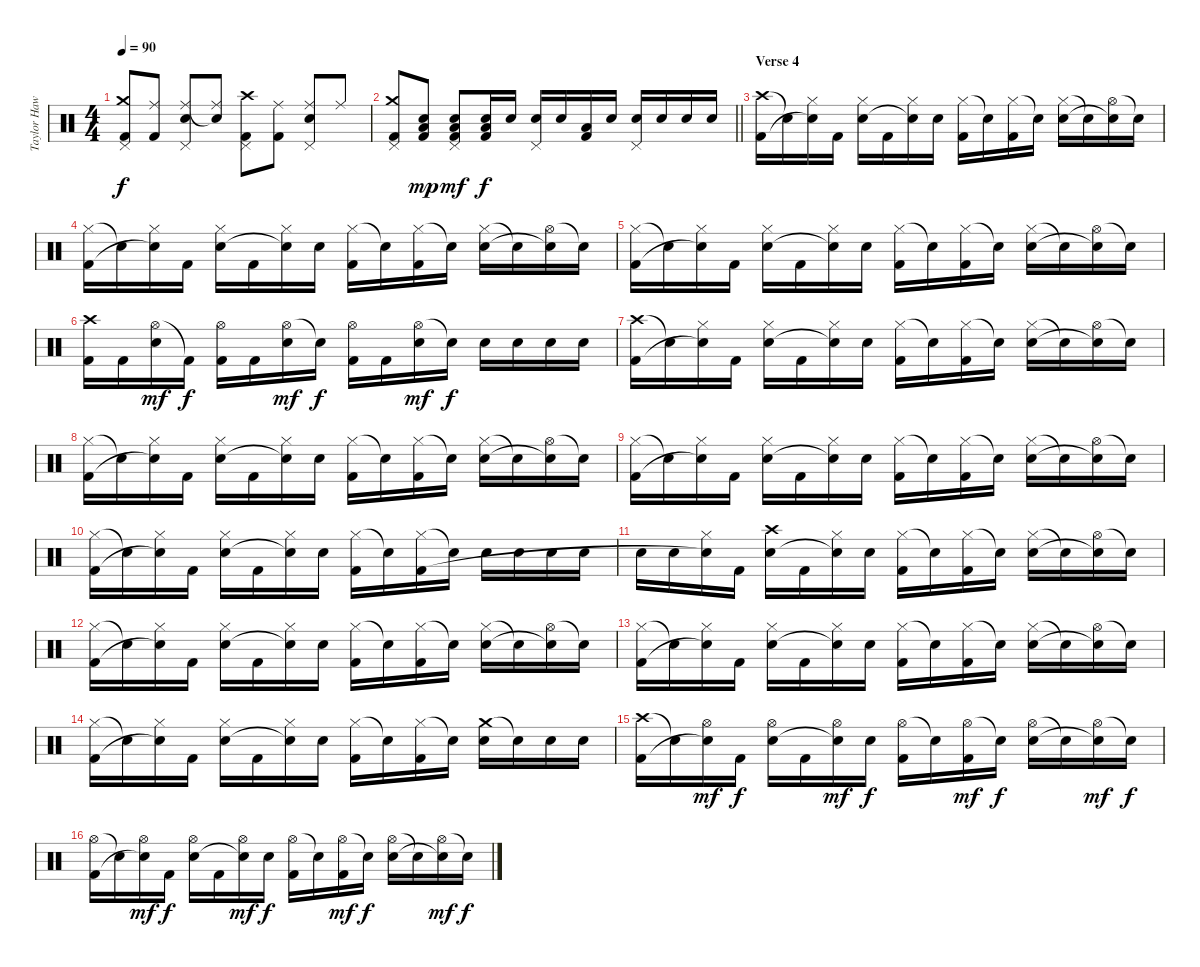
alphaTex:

\track ("Taylor Hawkins " "Taylor Haw") {instrument percussion}
\staff {score}
\articulation defaults
\ts (4 4)
\tempo 90
\clef neutral
\ks c
("Pedal Hi-Hat (hit)" "Crash medium (hit)" "Kick (hit) 2").8{dy f} ("Ride (middle)" "Kick (hit) 2").8 ("Pedal Hi-Hat (hit)" "Ride (middle)" "Snare (hit) 2").8 ("Ride (middle)" "Snare (hit) 2"{t}).8 ("Pedal Hi-Hat (hit)" "Crash high (hit)" "Kick (hit) 2").8 ("Ride (middle)" "Kick (hit) 2").8 ("Pedal Hi-Hat (hit)" "Ride (middle)" "Snare (hit) 2").8 "Ride (middle)".8 |
\barLineRight lightlight
("Pedal Hi-Hat (hit)" "Crash medium (hit)" "Kick (hit) 2").8 ("Snare (hit) 2" "Low Floor Tom (hit)" "Kick (hit) 2").8{dy mp} ("Pedal Hi-Hat (hit)" "Snare (hit) 2" "Low Floor Tom (hit)" "Kick (hit) 2").8{dy mf} ("Snare (hit) 2" "Low Floor Tom (hit)" "Kick (hit) 2").16{dy f} "Snare (hit) 2".16 ("Pedal Hi-Hat (hit)" "Snare (hit) 2").16 "Snare (hit) 2".16 ("Low Tom (hit)" "Kick (hit) 2").16 "Snare (hit) 2".16 ("Pedal Hi-Hat (hit)" "Snare (hit) 2").16 "Snare (hit) 2".16 "Snare (hit) 2".16 "Snare (hit) 2".16 |
\section ("" "Verse 4")
("Crash high (hit)" "Kick (hit) 2").16 "Snare (hit)"{t}.16 ("Hi-Hat (closed)" "Snare (hit)"{t}).16 "Kick (hit) 2".16 ("Hi-Hat (closed)" "Snare (hit) 2").16 "Kick (hit) 2".16 ("Hi-Hat (closed)" "Snare (hit)"{t}).16 "Snare (hit) 2".16 ("Hi-Hat (closed)" "Kick (hit) 2").16 "Snare (hit)"{t}.16 ("Hi-Hat (closed)" "Kick (hit) 2").16 "Snare (hit)"{t}.16 ("Hi-Hat (closed)" "Snare (hit) 2").16 "Snare (hit)"{t}.16 ("Hi-Hat (open)" "Snare (hit)"{t}).16 "Snare (hit)"{t}.16 |
("Hi-Hat (closed)" "Kick (hit) 2").16 "Snare (hit)"{t}.16 ("Hi-Hat (closed)" "Snare (hit)"{t}).16 "Kick (hit) 2".16 ("Hi-Hat (closed)" "Snare (hit) 2").16 "Kick (hit) 2".16 ("Hi-Hat (closed)" "Snare (hit)"{t}).16 "Snare (hit) 2".16 ("Hi-Hat (closed)" "Kick (hit) 2").16 "Snare (hit)"{t}.16 ("Hi-Hat (closed)" "Kick (hit) 2").16 "Snare (hit)"{t}.16 ("Hi-Hat (closed)" "Snare (hit) 2").16 "Snare (hit)"{t}.16 ("Hi-Hat (open)" "Snare (hit)"{t}).16 "Snare (hit)"{t}.16 |
("Hi-Hat (closed)" "Kick (hit) 2").16 "Snare (hit)"{t}.16 ("Hi-Hat (closed)" "Snare (hit)"{t}).16 "Kick (hit) 2".16 ("Hi-Hat (closed)" "Snare (hit) 2").16 "Kick (hit) 2".16 ("Hi-Hat (closed)" "Snare (hit)"{t}).16 "Snare (hit) 2".16 ("Hi-Hat (closed)" "Kick (hit) 2").16 "Snare (hit)"{t}.16 ("Hi-Hat (closed)" "Kick (hit) 2").16 "Snare (hit)"{t}.16 ("Hi-Hat (closed)" "Snare (hit) 2").16 "Snare (hit)"{t}.16 ("Hi-Hat (open)" "Snare (hit)"{t}).16 "Snare (hit)"{t}.16 |
("Crash high (hit)" "Kick (hit) 2").16 "Kick (hit) 2".16 ("Hi-Hat (open)" "Snare (hit) 2").16{dy mf} "Kick (hit) 2"{t}.16{dy f} ("Hi-Hat (open)" "Kick (hit) 2").16 "Kick (hit) 2".16 ("Hi-Hat (open)" "Snare (hit) 2").16{dy mf} "Snare (hit) 2"{t}.16{dy f} ("Hi-Hat (open)" "Kick (hit) 2").16 "Kick (hit) 2".16 ("Hi-Hat (open)" "Snare (hit) 2").16{dy mf} "Snare (hit)"{t}.16{dy f} "Snare (hit) 2".16 "Snare (hit) 2".16 "Snare (hit) 2".16 "Snare (hit) 2".16 |
("Crash high (hit)" "Kick (hit) 2").16 "Snare (hit)"{t}.16 ("Hi-Hat (closed)" "Snare (hit)"{t}).16 "Kick (hit) 2".16 ("Hi-Hat (closed)" "Snare (hit) 2").16 "Kick (hit) 2".16 ("Hi-Hat (closed)" "Snare (hit)"{t}).16 "Snare (hit) 2".16 ("Hi-Hat (closed)" "Kick (hit) 2").16 "Snare (hit)"{t}.16 ("Hi-Hat (closed)" "Kick (hit) 2").16 "Snare (hit)"{t}.16 ("Hi-Hat (closed)" "Snare (hit) 2").16 "Snare (hit)"{t}.16 ("Hi-Hat (open)" "Snare (hit)"{t}).16 "Snare (hit)"{t}.16 |
("Hi-Hat (closed)" "Kick (hit) 2").16 "Snare (hit)"{t}.16 ("Hi-Hat (closed)" "Snare (hit)"{t}).16 "Kick (hit) 2".16 ("Hi-Hat (closed)" "Snare (hit) 2").16 "Kick (hit) 2".16 ("Hi-Hat (closed)" "Snare (hit)"{t}).16 "Snare (hit) 2".16 ("Hi-Hat (closed)" "Kick (hit) 2").16 "Snare (hit)"{t}.16 ("Hi-Hat (closed)" "Kick (hit) 2").16 "Snare (hit)"{t}.16 ("Hi-Hat (closed)" "Snare (hit) 2").16 "Snare (hit)"{t}.16 ("Hi-Hat (open)" "Snare (hit)"{t}).16 "Snare (hit)"{t}.16 |
("Hi-Hat (closed)" "Kick (hit) 2").16 "Snare (hit)"{t}.16 ("Hi-Hat (closed)" "Snare (hit)"{t}).16 "Kick (hit) 2".16 ("Hi-Hat (closed)" "Snare (hit) 2").16 "Kick (hit) 2".16 ("Hi-Hat (closed)" "Snare (hit)"{t}).16 "Snare (hit) 2".16 ("Hi-Hat (closed)" "Kick (hit) 2").16 "Snare (hit)"{t}.16 ("Hi-Hat (closed)" "Kick (hit) 2").16 "Snare (hit)"{t}.16 ("Hi-Hat (closed)" "Snare (hit) 2").16 "Snare (hit)"{t}.16 ("Hi-Hat (open)" "Snare (hit)"{t}).16 "Snare (hit)"{t}.16 |
("Hi-Hat (closed)" "Kick (hit) 2").16 "Snare (hit)"{t}.16 ("Hi-Hat (closed)" "Snare (hit)"{t}).16 "Kick (hit) 2".16 ("Hi-Hat (closed)" "Snare (hit) 2").16 "Kick (hit) 2".16 ("Hi-Hat (closed)" "Snare (hit)"{t}).16 "Snare (hit) 2".16 ("Hi-Hat (closed)" "Kick (hit) 2").16 "Snare (hit)"{t}.16 ("Hi-Hat (closed)" "Kick (hit) 2").16 "Snare (hit) 2"{t}.16 "Snare (hit) 2".16 "Snare (hit) 2".16 "Snare (hit) 2".16 "Snare (hit) 2".16 |
"Snare (hit) 2".16 "Snare (hit) 2".16 ("Hi-Hat (closed)" "Snare (hit)"{t}).16 "Kick (hit) 2".16 ("Crash high (hit)" "Snare (hit) 2").16 "Kick (hit) 2".16 ("Hi-Hat (closed)" "Snare (hit)"{t}).16 "Snare (hit) 2".16 ("Hi-Hat (closed)" "Kick (hit) 2").16 "Snare (hit)"{t}.16 ("Hi-Hat (closed)" "Kick (hit) 2").16 "Snare (hit)"{t}.16 ("Hi-Hat (closed)" "Snare (hit) 2").16 "Snare (hit)"{t}.16 ("Hi-Hat (open)" "Snare (hit)"{t}).16 "Snare (hit)"{t}.16 |
("Hi-Hat (closed)" "Kick (hit) 2").16 "Snare (hit)"{t}.16 ("Hi-Hat (closed)" "Snare (hit)"{t}).16 "Kick (hit) 2".16 ("Hi-Hat (closed)" "Snare (hit) 2").16 "Kick (hit) 2".16 ("Hi-Hat (closed)" "Snare (hit)"{t}).16 "Snare (hit) 2".16 ("Hi-Hat (closed)" "Kick (hit) 2").16 "Snare (hit)"{t}.16 ("Hi-Hat (closed)" "Kick (hit) 2").16 "Snare (hit)"{t}.16 ("Hi-Hat (closed)" "Snare (hit) 2").16 "Snare (hit)"{t}.16 ("Hi-Hat (open)" "Snare (hit)"{t}).16 "Snare (hit)"{t}.16 |
("Hi-Hat (closed)" "Kick (hit) 2").16 "Snare (hit)"{t}.16 ("Hi-Hat (closed)" "Snare (hit)"{t}).16 "Kick (hit) 2".16 ("Hi-Hat (closed)" "Snare (hit) 2").16 "Kick (hit) 2".16 ("Hi-Hat (closed)" "Snare (hit)"{t}).16 "Snare (hit) 2".16 ("Hi-Hat (closed)" "Kick (hit) 2").16 "Snare (hit)"{t}.16 ("Hi-Hat (closed)" "Kick (hit) 2").16 "Snare (hit)"{t}.16 ("Hi-Hat (closed)" "Snare (hit) 2").16 "Snare (hit)"{t}.16 ("Hi-Hat (open)" "Snare (hit)"{t}).16 "Snare (hit)"{t}.16 |
("Hi-Hat (closed)" "Kick (hit) 2").16 "Snare (hit)"{t}.16 ("Hi-Hat (closed)" "Snare (hit)"{t}).16 "Kick (hit) 2".16 ("Hi-Hat (closed)" "Snare (hit) 2").16 "Kick (hit) 2".16 ("Hi-Hat (closed)" "Snare (hit)"{t}).16 "Snare (hit) 2".16 ("Hi-Hat (closed)" "Kick (hit) 2").16 "Snare (hit)"{t}.16 ("Hi-Hat (closed)" "Kick (hit) 2").16 "Snare (hit)"{t}.16 ("Crash medium (hit)" "Snare (hit) 2").16 "Snare (hit)"{t}.16 "Snare (hit) 2".16 "Snare (hit) 2".16 |
("Crash high (hit)" "Kick (hit) 2").16 "Snare (hit)"{t}.16 ("Hi-Hat (open)" "Snare (hit)"{t}).16{dy mf} "Kick (hit) 2".16{dy f} ("Hi-Hat (open)" "Snare (hit) 2").16 "Kick (hit) 2".16 ("Hi-Hat (open)" "Snare (hit)"{t}).16{dy mf} "Snare (hit) 2".16{dy f} ("Hi-Hat (open)" "Kick (hit) 2").16 "Snare (hit)"{t}.16 ("Hi-Hat (open)" "Kick (hit) 2").16{dy mf} "Snare (hit)"{t}.16{dy f} ("Hi-Hat (open)" "Snare (hit) 2").16 "Snare (hit)"{t}.16 ("Hi-Hat (open)" "Snare (hit)"{t}).16{dy mf} "Snare (hit)"{t}.16{dy f} |
("Hi-Hat (open)" "Kick (hit) 2").16 "Snare (hit)"{t}.16 ("Hi-Hat (open)" "Snare (hit)"{t}).16{dy mf} "Kick (hit) 2".16{dy f} ("Hi-Hat (open)" "Snare (hit) 2").16 "Kick (hit) 2".16 ("Hi-Hat (open)" "Snare (hit)"{t}).16{dy mf} "Snare (hit) 2".16{dy f} ("Hi-Hat (open)" "Kick (hit) 2").16 "Snare (hit)"{t}.16 ("Hi-Hat (open)" "Kick (hit) 2").16{dy mf} "Snare (hit)"{t}.16{dy f} ("Hi-Hat (open)" "Snare (hit) 2").16 "Snare (hit)"{t}.16 ("Hi-Hat (open)" "Snare (hit)"{t}).16{dy mf} "Snare (hit)"{t}.16{dy f}
